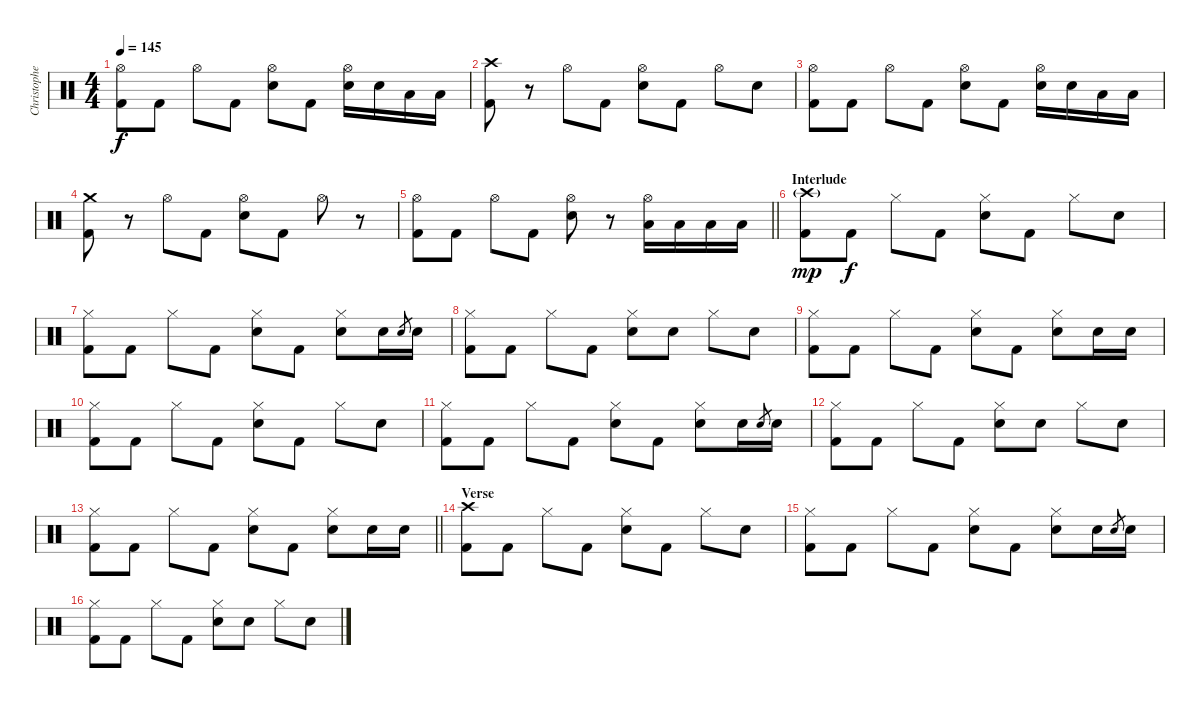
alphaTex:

\track ("Christopher - Drums" "Christophe") {instrument percussion}
\staff {score}
\articulation defaults
\ts (4 4)
\tempo 145
\clef neutral
\ks c
("Hi-Hat (open)" "Kick (hit) 2").8{dy f} "Kick (hit) 2".8 "Hi-Hat (open)".8 "Kick (hit) 2".8 ("Hi-Hat (open)" "Electric Snare (hit)").8 "Kick (hit) 2".8 ("Hi-Hat (open)" "Electric Snare (hit)").16 "Electric Snare (hit)".16 "Low Tom (hit)".16 "Low Tom (hit)".16 |
("Crash high (hit)" "Kick (hit) 2").8 r.8 "Hi-Hat (open)".8 "Kick (hit) 2".8 ("Hi-Hat (open)" "Electric Snare (hit)").8 "Kick (hit) 2".8 "Hi-Hat (open)".8 "Electric Snare (hit)".8 |
("Hi-Hat (open)" "Kick (hit) 2").8 "Kick (hit) 2".8 "Hi-Hat (open)".8 "Kick (hit) 2".8 ("Hi-Hat (open)" "Electric Snare (hit)").8 "Kick (hit) 2".8 ("Hi-Hat (open)" "Electric Snare (hit)").16 "Electric Snare (hit)".16 "Low Tom (hit)".16 "Low Tom (hit)".16 |
("Crash medium (hit)" "Kick (hit) 2").8 r.8 "Hi-Hat (open)".8 "Kick (hit) 2".8 ("Hi-Hat (open)" "Electric Snare (hit)").8 "Kick (hit) 2".8 "Hi-Hat (open)".8 r.8 |
\barLineRight lightlight
("Hi-Hat (open)" "Kick (hit) 2").8 "Kick (hit) 2".8 "Hi-Hat (open)".8 "Kick (hit) 2".8 ("Hi-Hat (open)" "Electric Snare (hit)").8 r.8 ("Hi-Hat (open)" "Low Floor Tom (hit)").16 "Low Floor Tom (hit)".16 "Low Floor Tom (hit)".16 "Low Floor Tom (hit)".16 |
\section ("" "Interlude")
("Crash high (hit)"{g} "Kick (hit) 2").8{dy mp} "Kick (hit) 2".8{dy f} "Hi-Hat (closed)".8 "Kick (hit) 2".8 ("Hi-Hat (closed)" "Electric Snare (hit)").8 "Kick (hit) 2".8 "Hi-Hat (closed)".8 "Electric Snare (hit)".8 |
("Hi-Hat (closed)" "Kick (hit) 2").8 "Kick (hit) 2".8 "Hi-Hat (closed)".8 "Kick (hit) 2".8 ("Hi-Hat (closed)" "Electric Snare (hit)").8 "Kick (hit) 2".8 ("Hi-Hat (closed)" "Electric Snare (hit)").8 "Electric Snare (hit)".16 "Electric Snare (hit)".8{gr} "Electric Snare (hit)".16 |
("Hi-Hat (closed)" "Kick (hit) 2").8 "Kick (hit) 2".8 "Hi-Hat (closed)".8 "Kick (hit) 2".8 ("Hi-Hat (closed)" "Electric Snare (hit)").8 "Electric Snare (hit)".8 "Hi-Hat (closed)".8 "Electric Snare (hit)".8 |
("Hi-Hat (closed)" "Kick (hit) 2").8 "Kick (hit) 2".8 "Hi-Hat (closed)".8 "Kick (hit) 2".8 ("Hi-Hat (closed)" "Electric Snare (hit)").8 "Kick (hit) 2".8 ("Hi-Hat (closed)" "Electric Snare (hit)").8 "Electric Snare (hit)".16 "Electric Snare (hit)".16 |
("Hi-Hat (closed)" "Kick (hit) 2").8 "Kick (hit) 2".8 "Hi-Hat (closed)".8 "Kick (hit) 2".8 ("Hi-Hat (closed)" "Electric Snare (hit)").8 "Kick (hit) 2".8 "Hi-Hat (closed)".8 "Electric Snare (hit)".8 |
("Hi-Hat (closed)" "Kick (hit) 2").8 "Kick (hit) 2".8 "Hi-Hat (closed)".8 "Kick (hit) 2".8 ("Hi-Hat (closed)" "Electric Snare (hit)").8 "Kick (hit) 2".8 ("Hi-Hat (closed)" "Electric Snare (hit)").8 "Electric Snare (hit)".16 "Electric Snare (hit)".8{gr} "Electric Snare (hit)".16 |
("Hi-Hat (closed)" "Kick (hit) 2").8 "Kick (hit) 2".8 "Hi-Hat (closed)".8 "Kick (hit) 2".8 ("Hi-Hat (closed)" "Electric Snare (hit)").8 "Electric Snare (hit)".8 "Hi-Hat (closed)".8 "Electric Snare (hit)".8 |
\barLineRight lightlight
("Hi-Hat (closed)" "Kick (hit) 2").8 "Kick (hit) 2".8 "Hi-Hat (closed)".8 "Kick (hit) 2".8 ("Hi-Hat (closed)" "Electric Snare (hit)").8 "Kick (hit) 2".8 ("Hi-Hat (closed)" "Electric Snare (hit)").8 "Electric Snare (hit)".16 "Electric Snare (hit)".16 |
\section ("" "Verse")
("Crash high (hit)" "Kick (hit) 2").8 "Kick (hit) 2".8 "Hi-Hat (closed)".8 "Kick (hit) 2".8 ("Hi-Hat (closed)" "Electric Snare (hit)").8 "Kick (hit) 2".8 "Hi-Hat (closed)".8 "Electric Snare (hit)".8 |
("Hi-Hat (closed)" "Kick (hit) 2").8 "Kick (hit) 2".8 "Hi-Hat (closed)".8 "Kick (hit) 2".8 ("Hi-Hat (closed)" "Electric Snare (hit)").8 "Kick (hit) 2".8 ("Hi-Hat (closed)" "Electric Snare (hit)").8 "Electric Snare (hit)".16 "Electric Snare (hit)".8{gr} "Electric Snare (hit)".16 |
("Hi-Hat (closed)" "Kick (hit) 2").8 "Kick (hit) 2".8 "Hi-Hat (closed)".8 "Kick (hit) 2".8 ("Hi-Hat (closed)" "Electric Snare (hit)").8 "Electric Snare (hit)".8 "Hi-Hat (closed)".8 "Electric Snare (hit)".8
